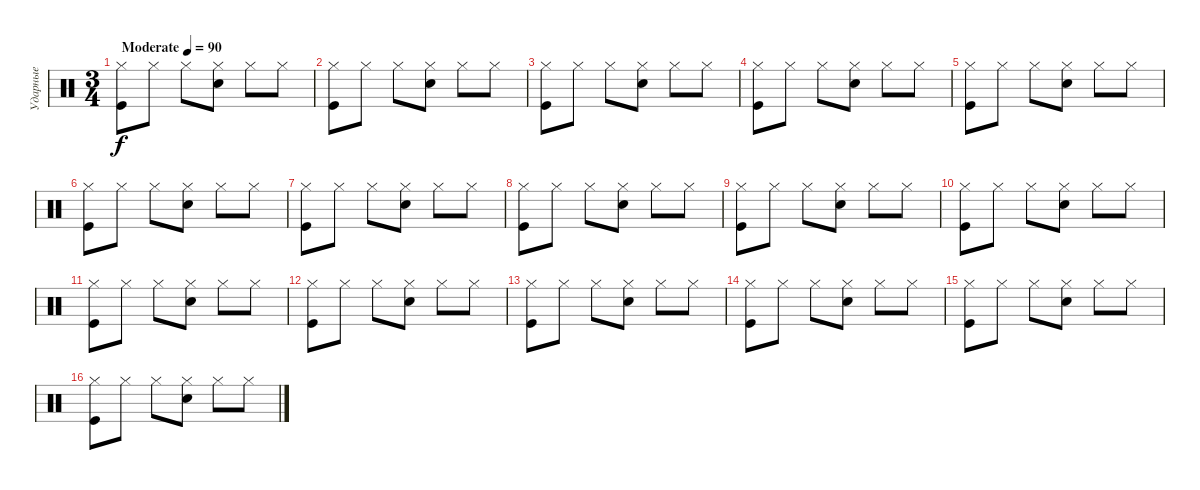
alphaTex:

\track ("Ударные" "Ударные") {instrument percussion}
\staff {score}
\articulation defaults
\ts (3 4)
\tempo (90 "Moderate")
\clef neutral
\ks c
("Kick (hit)" "Hi-Hat (closed)").8{dy f} "Hi-Hat (closed)".8 "Hi-Hat (closed)".8 ("Snare (hit) 2" "Hi-Hat (closed)").8 "Hi-Hat (closed)".8 "Hi-Hat (closed)".8 |
("Kick (hit)" "Hi-Hat (closed)").8 "Hi-Hat (closed)".8 "Hi-Hat (closed)".8 ("Snare (hit) 2" "Hi-Hat (closed)").8 "Hi-Hat (closed)".8 "Hi-Hat (closed)".8 |
("Kick (hit)" "Hi-Hat (closed)").8 "Hi-Hat (closed)".8 "Hi-Hat (closed)".8 ("Snare (hit) 2" "Hi-Hat (closed)").8 "Hi-Hat (closed)".8 "Hi-Hat (closed)".8 |
("Kick (hit)" "Hi-Hat (closed)").8 "Hi-Hat (closed)".8 "Hi-Hat (closed)".8 ("Snare (hit) 2" "Hi-Hat (closed)").8 "Hi-Hat (closed)".8 "Hi-Hat (closed)".8 |
("Kick (hit)" "Hi-Hat (closed)").8 "Hi-Hat (closed)".8 "Hi-Hat (closed)".8 ("Snare (hit) 2" "Hi-Hat (closed)").8 "Hi-Hat (closed)".8 "Hi-Hat (closed)".8 |
("Kick (hit)" "Hi-Hat (closed)").8 "Hi-Hat (closed)".8 "Hi-Hat (closed)".8 ("Snare (hit) 2" "Hi-Hat (closed)").8 "Hi-Hat (closed)".8 "Hi-Hat (closed)".8 |
("Kick (hit)" "Hi-Hat (closed)").8 "Hi-Hat (closed)".8 "Hi-Hat (closed)".8 ("Snare (hit) 2" "Hi-Hat (closed)").8 "Hi-Hat (closed)".8 "Hi-Hat (closed)".8 |
("Kick (hit)" "Hi-Hat (closed)").8 "Hi-Hat (closed)".8 "Hi-Hat (closed)".8 ("Snare (hit) 2" "Hi-Hat (closed)").8 "Hi-Hat (closed)".8 "Hi-Hat (closed)".8 |
("Kick (hit)" "Hi-Hat (closed)").8 "Hi-Hat (closed)".8 "Hi-Hat (closed)".8 ("Snare (hit) 2" "Hi-Hat (closed)").8 "Hi-Hat (closed)".8 "Hi-Hat (closed)".8 |
("Kick (hit)" "Hi-Hat (closed)").8 "Hi-Hat (closed)".8 "Hi-Hat (closed)".8 ("Snare (hit) 2" "Hi-Hat (closed)").8 "Hi-Hat (closed)".8 "Hi-Hat (closed)".8 |
("Kick (hit)" "Hi-Hat (closed)").8 "Hi-Hat (closed)".8 "Hi-Hat (closed)".8 ("Snare (hit) 2" "Hi-Hat (closed)").8 "Hi-Hat (closed)".8 "Hi-Hat (closed)".8 |
("Kick (hit)" "Hi-Hat (closed)").8 "Hi-Hat (closed)".8 "Hi-Hat (closed)".8 ("Snare (hit) 2" "Hi-Hat (closed)").8 "Hi-Hat (closed)".8 "Hi-Hat (closed)".8 |
("Kick (hit)" "Hi-Hat (closed)").8 "Hi-Hat (closed)".8 "Hi-Hat (closed)".8 ("Snare (hit) 2" "Hi-Hat (closed)").8 "Hi-Hat (closed)".8 "Hi-Hat (closed)".8 |
("Kick (hit)" "Hi-Hat (closed)").8 "Hi-Hat (closed)".8 "Hi-Hat (closed)".8 ("Snare (hit) 2" "Hi-Hat (closed)").8 "Hi-Hat (closed)".8 "Hi-Hat (closed)".8 |
("Kick (hit)" "Hi-Hat (closed)").8 "Hi-Hat (closed)".8 "Hi-Hat (closed)".8 ("Snare (hit) 2" "Hi-Hat (closed)").8 "Hi-Hat (closed)".8 "Hi-Hat (closed)".8 |
("Kick (hit)" "Hi-Hat (closed)").8 "Hi-Hat (closed)".8 "Hi-Hat (closed)".8 ("Snare (hit) 2" "Hi-Hat (closed)").8 "Hi-Hat (closed)".8 "Hi-Hat (closed)".8
